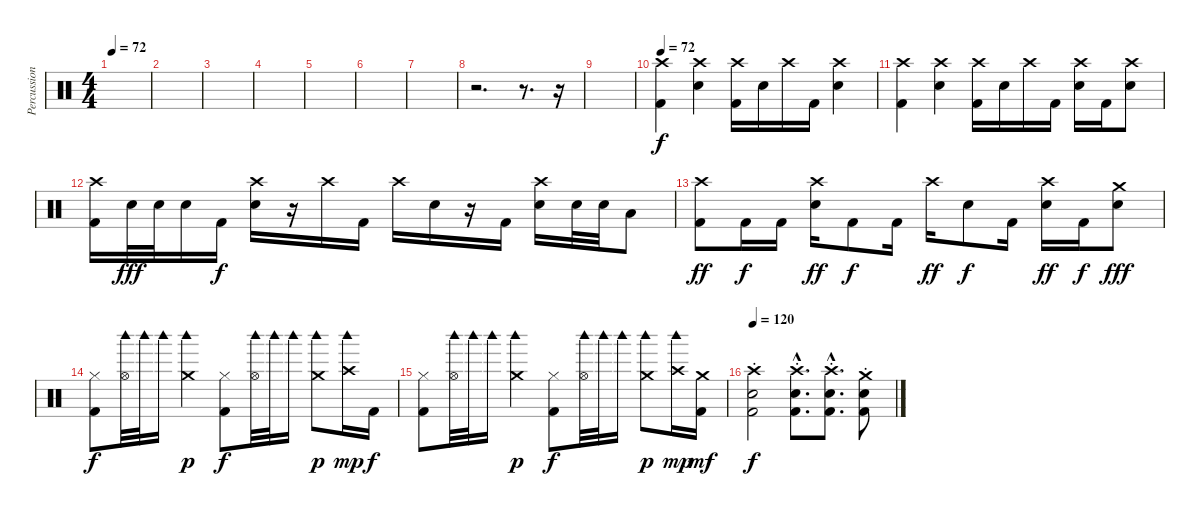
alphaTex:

\track ("Percussion" "Percussion") {instrument percussion}
\staff {score}
\articulation defaults
\ts (4 4)
\tempo 72
\clef neutral
\ks c
|
|
|
|
|
|
|
r.2{d} r.8{d} r.16 |
|
\tempo 72
("Crash high (hit)" "Kick (hit) 2").4 ("Crash high (hit)" "Snare (hit) 2").4 ("Crash high (hit)" "Kick (hit) 2").16 "Snare (hit) 2".16 "Crash high (hit)".16 "Kick (hit) 2".16 ("Crash high (hit)" "Snare (hit) 2").4 |
("Crash high (hit)" "Kick (hit) 2").4 ("Crash high (hit)" "Snare (hit) 2").4 ("Crash high (hit)" "Kick (hit) 2").16 "Snare (hit) 2".16 "Crash high (hit)".16 "Kick (hit) 2".16 ("Crash high (hit)" "Snare (hit) 2").16 "Kick (hit) 2".16 ("Crash high (hit)" "Snare (hit) 2").8 |
("Crash high (hit)" "Kick (hit) 2").16 "Snare (hit) 2".32{dy fff} "Snare (hit) 2".32 "Snare (hit) 2".16 "Kick (hit) 2".16{dy f} ("Crash high (hit)" "Snare (hit) 2").16 r.16 "Crash high (hit)".16 "Kick (hit) 2".16 "Crash high (hit)".16 "Snare (hit) 2".16 r.16 "Kick (hit) 2".16 ("Crash high (hit)" "Snare (hit) 2").16 "Snare (hit) 2".32 "Snare (hit) 2".32 "Low Tom (hit)".8 |
("Crash high (hit)" "Kick (hit) 2").8{dy ff} "Kick (hit) 2".16{dy f} "Kick (hit) 2".16 ("Crash high (hit)" "Snare (hit) 2").16{dy ff} "Kick (hit) 2".8{dy f} "Kick (hit) 2".16 "Crash high (hit)".16{dy ff} "Snare (hit) 2".8{dy f} "Kick (hit) 2".16 ("Crash high (hit)" "Snare (hit) 2").16{dy ff} "Kick (hit) 2".16{dy f} ("Crash medium (hit)" "Snare (hit) 2").8{dy fff} |
("Hi-Hat (closed)" "Kick (hit) 2").8{dy f} ("Hi-Hat (open)" "Woodblock high (hit)").32 "Woodblock high (hit)".32 "Woodblock high (hit)".16 ("Crash medium (hit)" "Woodblock high (hit)").4{dy p} ("Hi-Hat (closed)" "Kick (hit) 2").8{dy f} ("Hi-Hat (open)" "Woodblock high (hit)").32 "Woodblock high (hit)".32 "Woodblock high (hit)".16 ("Crash medium (hit)" "Woodblock high (hit)").8{dy p} ("Crash high (hit)" "Woodblock high (hit)").16{dy mp} "Kick (hit) 2".16{dy f} |
("Hi-Hat (closed)" "Kick (hit) 2").8 ("Hi-Hat (open)" "Woodblock high (hit)").32 "Woodblock high (hit)".32 "Woodblock high (hit)".16 ("Crash medium (hit)" "Woodblock high (hit)").4{dy p} ("Hi-Hat (closed)" "Kick (hit) 2").8{dy f} ("Hi-Hat (open)" "Woodblock high (hit)").32 "Woodblock high (hit)".32 "Woodblock high (hit)".16 ("Crash medium (hit)" "Woodblock high (hit)").8{dy p} ("Crash high (hit)" "Woodblock high (hit)").16{dy mp} ("Crash medium (hit)" "Kick (hit) 2").16{dy mf} |
\tempo 120
("Crash high (hit)"{st} "Snare (hit) 2" "Kick (hit) 2").2{dy f} ("Crash high (hit)"{hac st} "Snare (hit) 2"{hac} "Kick (hit) 2"{hac}).8{d} ("Crash high (hit)"{hac st} "Snare (hit) 2"{hac} "Kick (hit) 2"{hac}).8{d} ("Crash medium (hit)"{st} "Snare (hit) 2" "Kick (hit) 2").8
